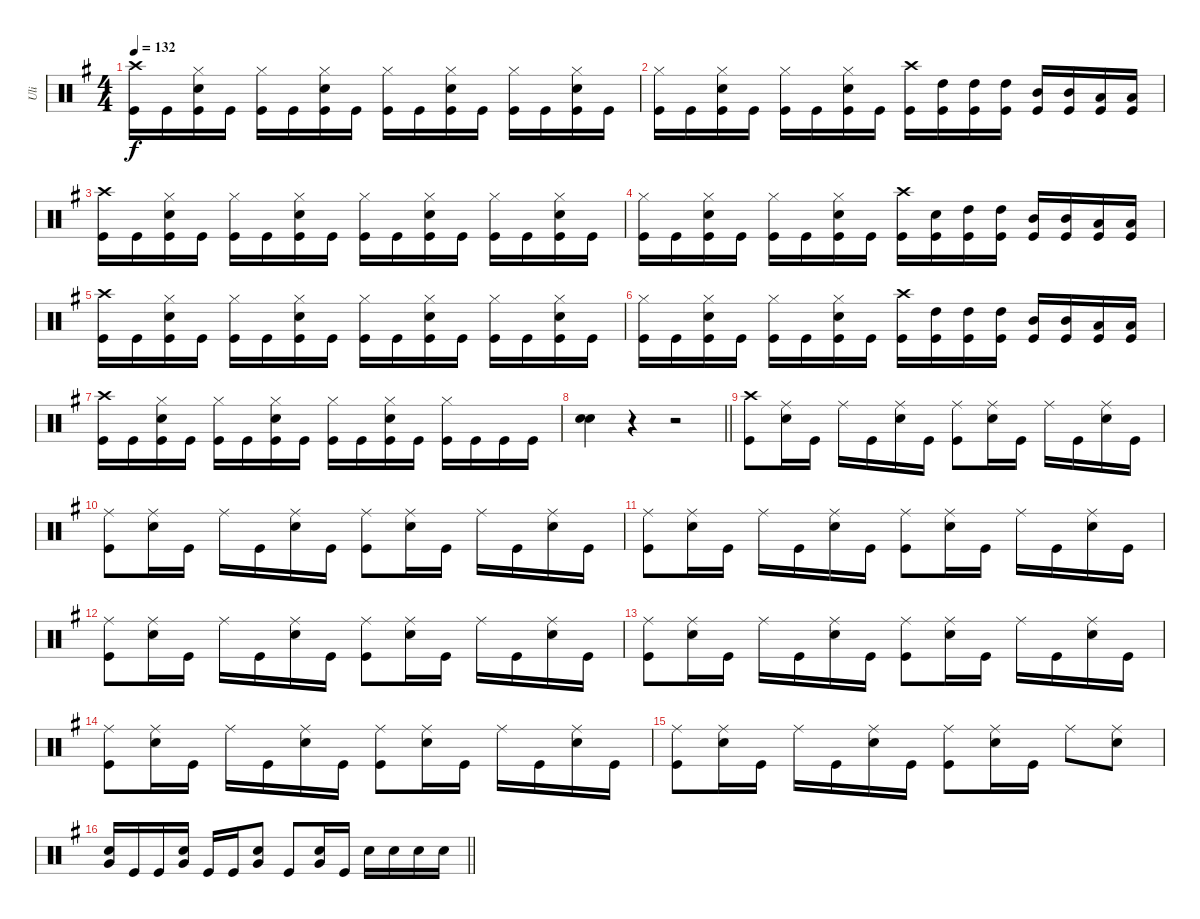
\track ("Uli" "Uli") {instrument percussion}
\staff {score}
\articulation defaults
\ts (4 4)
\tempo 132
\clef neutral
\ks eminor
("Crash high (hit)" "Kick (hit)").16{dy f} "Kick (hit)".16 ("Hi-Hat (closed)" "Snare (hit) 2" "Kick (hit)").16 "Kick (hit)".16 ("Hi-Hat (closed)" "Kick (hit)").16 "Kick (hit)".16 ("Hi-Hat (closed)" "Snare (hit) 2" "Kick (hit)").16 "Kick (hit)".16 ("Hi-Hat (closed)" "Kick (hit)").16 "Kick (hit)".16 ("Hi-Hat (closed)" "Snare (hit) 2" "Kick (hit)").16 "Kick (hit)".16 ("Hi-Hat (closed)" "Kick (hit)").16 "Kick (hit)".16 ("Hi-Hat (closed)" "Snare (hit) 2" "Kick (hit)").16 "Kick (hit)".16 |
("Hi-Hat (closed)" "Kick (hit)").16 "Kick (hit)".16 ("Hi-Hat (closed)" "Snare (hit) 2" "Kick (hit)").16 "Kick (hit)".16 ("Hi-Hat (closed)" "Kick (hit)").16 "Kick (hit)".16 ("Hi-Hat (closed)" "Snare (hit) 2" "Kick (hit)").16 "Kick (hit)".16 ("Crash high (hit)" "Kick (hit)").16 ("High Tom (hit)" "Kick (hit)").16 ("High Tom (hit)" "Kick (hit)").16 ("High Tom (hit)" "Kick (hit)").16 ("Mid Tom (hit)" "Kick (hit)").16 ("Mid Tom (hit)" "Kick (hit)").16 ("Low Tom (hit)" "Kick (hit)").16 ("Low Tom (hit)" "Kick (hit)").16 |
("Crash high (hit)" "Kick (hit)").16 "Kick (hit)".16 ("Hi-Hat (closed)" "Snare (hit) 2" "Kick (hit)").16 "Kick (hit)".16 ("Hi-Hat (closed)" "Kick (hit)").16 "Kick (hit)".16 ("Hi-Hat (closed)" "Snare (hit) 2" "Kick (hit)").16 "Kick (hit)".16 ("Hi-Hat (closed)" "Kick (hit)").16 "Kick (hit)".16 ("Hi-Hat (closed)" "Snare (hit) 2" "Kick (hit)").16 "Kick (hit)".16 ("Hi-Hat (closed)" "Kick (hit)").16 "Kick (hit)".16 ("Hi-Hat (closed)" "Snare (hit) 2" "Kick (hit)").16 "Kick (hit)".16 |
("Hi-Hat (closed)" "Kick (hit)").16 "Kick (hit)".16 ("Hi-Hat (closed)" "Snare (hit) 2" "Kick (hit)").16 "Kick (hit)".16 ("Hi-Hat (closed)" "Kick (hit)").16 "Kick (hit)".16 ("Hi-Hat (closed)" "Snare (hit) 2" "Kick (hit)").16 "Kick (hit)".16 ("Crash high (hit)" "Kick (hit)").16 ("Snare (hit) 2" "Kick (hit)").16 ("High Tom (hit)" "Kick (hit)").16 ("High Tom (hit)" "Kick (hit)").16 ("Mid Tom (hit)" "Kick (hit)").16 ("Mid Tom (hit)" "Kick (hit)").16 ("Low Tom (hit)" "Kick (hit)").16 ("Low Tom (hit)" "Kick (hit)").16 |
("Crash high (hit)" "Kick (hit)").16 "Kick (hit)".16 ("Hi-Hat (closed)" "Snare (hit) 2" "Kick (hit)").16 "Kick (hit)".16 ("Hi-Hat (closed)" "Kick (hit)").16 "Kick (hit)".16 ("Hi-Hat (closed)" "Snare (hit) 2" "Kick (hit)").16 "Kick (hit)".16 ("Hi-Hat (closed)" "Kick (hit)").16 "Kick (hit)".16 ("Hi-Hat (closed)" "Snare (hit) 2" "Kick (hit)").16 "Kick (hit)".16 ("Hi-Hat (closed)" "Kick (hit)").16 "Kick (hit)".16 ("Hi-Hat (closed)" "Snare (hit) 2" "Kick (hit)").16 "Kick (hit)".16 |
("Hi-Hat (closed)" "Kick (hit)").16 "Kick (hit)".16 ("Hi-Hat (closed)" "Snare (hit) 2" "Kick (hit)").16 "Kick (hit)".16 ("Hi-Hat (closed)" "Kick (hit)").16 "Kick (hit)".16 ("Hi-Hat (closed)" "Snare (hit) 2" "Kick (hit)").16 "Kick (hit)".16 ("Crash high (hit)" "Kick (hit)").16 ("High Tom (hit)" "Kick (hit)").16 ("High Tom (hit)" "Kick (hit)").16 ("High Tom (hit)" "Kick (hit)").16 ("Mid Tom (hit)" "Kick (hit)").16 ("Mid Tom (hit)" "Kick (hit)").16 ("Low Tom (hit)" "Kick (hit)").16 ("Low Tom (hit)" "Kick (hit)").16 |
("Crash high (hit)" "Kick (hit)").16 "Kick (hit)".16 ("Hi-Hat (closed)" "Snare (hit) 2" "Kick (hit)").16 "Kick (hit)".16 ("Hi-Hat (closed)" "Kick (hit)").16 "Kick (hit)".16 ("Hi-Hat (closed)" "Snare (hit) 2" "Kick (hit)").16 "Kick (hit)".16 ("Hi-Hat (closed)" "Kick (hit)").16 "Kick (hit)".16 ("Hi-Hat (closed)" "Snare (hit) 2" "Kick (hit)").16 "Kick (hit)".16 ("Hi-Hat (closed)" "Kick (hit)").16 "Kick (hit)".16 "Kick (hit)".16 "Kick (hit)".16 |
\barLineRight lightlight
("Snare (hit) 2" "Snare (hit) 2").4 r.4 r.2 |
("Crash high (hit)" "Kick (hit)").8 ("Ride (middle)" "Snare (hit) 2").16 "Kick (hit)".16 "Ride (middle)".16 "Kick (hit)".16 ("Ride (middle)" "Snare (hit) 2").16 "Kick (hit)".16 ("Ride (middle)" "Kick (hit)").8 ("Ride (middle)" "Snare (hit) 2").16 "Kick (hit)".16 "Ride (middle)".16 "Kick (hit)".16 ("Ride (middle)" "Snare (hit) 2").16 "Kick (hit)".16 |
("Ride (middle)" "Kick (hit)").8 ("Ride (middle)" "Snare (hit) 2").16 "Kick (hit)".16 "Ride (middle)".16 "Kick (hit)".16 ("Ride (middle)" "Snare (hit) 2").16 "Kick (hit)".16 ("Ride (middle)" "Kick (hit)").8 ("Ride (middle)" "Snare (hit) 2").16 "Kick (hit)".16 "Ride (middle)".16 "Kick (hit)".16 ("Ride (middle)" "Snare (hit) 2").16 "Kick (hit)".16 |
("Ride (middle)" "Kick (hit)").8 ("Ride (middle)" "Snare (hit) 2").16 "Kick (hit)".16 "Ride (middle)".16 "Kick (hit)".16 ("Ride (middle)" "Snare (hit) 2").16 "Kick (hit)".16 ("Ride (middle)" "Kick (hit)").8 ("Ride (middle)" "Snare (hit) 2").16 "Kick (hit)".16 "Ride (middle)".16 "Kick (hit)".16 ("Ride (middle)" "Snare (hit) 2").16 "Kick (hit)".16 |
("Ride (middle)" "Kick (hit)").8 ("Ride (middle)" "Snare (hit) 2").16 "Kick (hit)".16 "Ride (middle)".16 "Kick (hit)".16 ("Ride (middle)" "Snare (hit) 2").16 "Kick (hit)".16 ("Ride (middle)" "Kick (hit)").8 ("Ride (middle)" "Snare (hit) 2").16 "Kick (hit)".16 "Ride (middle)".16 "Kick (hit)".16 ("Ride (middle)" "Snare (hit) 2").16 "Kick (hit)".16 |
("Ride (middle)" "Kick (hit)").8 ("Ride (middle)" "Snare (hit) 2").16 "Kick (hit)".16 "Ride (middle)".16 "Kick (hit)".16 ("Ride (middle)" "Snare (hit) 2").16 "Kick (hit)".16 ("Ride (middle)" "Kick (hit)").8 ("Ride (middle)" "Snare (hit) 2").16 "Kick (hit)".16 "Ride (middle)".16 "Kick (hit)".16 ("Ride (middle)" "Snare (hit) 2").16 "Kick (hit)".16 |
("Ride (middle)" "Kick (hit)").8 ("Ride (middle)" "Snare (hit) 2").16 "Kick (hit)".16 "Ride (middle)".16 "Kick (hit)".16 ("Ride (middle)" "Snare (hit) 2").16 "Kick (hit)".16 ("Ride (middle)" "Kick (hit)").8 ("Ride (middle)" "Snare (hit) 2").16 "Kick (hit)".16 "Ride (middle)".16 "Kick (hit)".16 ("Ride (middle)" "Snare (hit) 2").16 "Kick (hit)".16 |
("Ride (middle)" "Kick (hit)").8 ("Ride (middle)" "Snare (hit) 2").16 "Kick (hit)".16 "Ride (middle)".16 "Kick (hit)".16 ("Ride (middle)" "Snare (hit) 2").16 "Kick (hit)".16 ("Ride (middle)" "Kick (hit)").8 ("Ride (middle)" "Snare (hit) 2").16 "Kick (hit)".16 "Ride (middle)".8 ("Ride (middle)" "Snare (hit) 2").8 |
\barLineRight lightlight
("Snare (hit) 2" "Very Low Tom (hit)").16 "Kick (hit)".16 "Kick (hit)".16 ("Snare (hit) 2" "Very Low Tom (hit)").16 "Kick (hit)".16 "Kick (hit)".16 ("Snare (hit) 2" "Very Low Tom (hit)").8 "Kick (hit)".8 ("Snare (hit) 2" "Very Low Tom (hit)").16 "Kick (hit)".16 "Snare (hit) 2".16 "Snare (hit) 2".16 "Snare (hit) 2".16 "Snare (hit) 2".16
